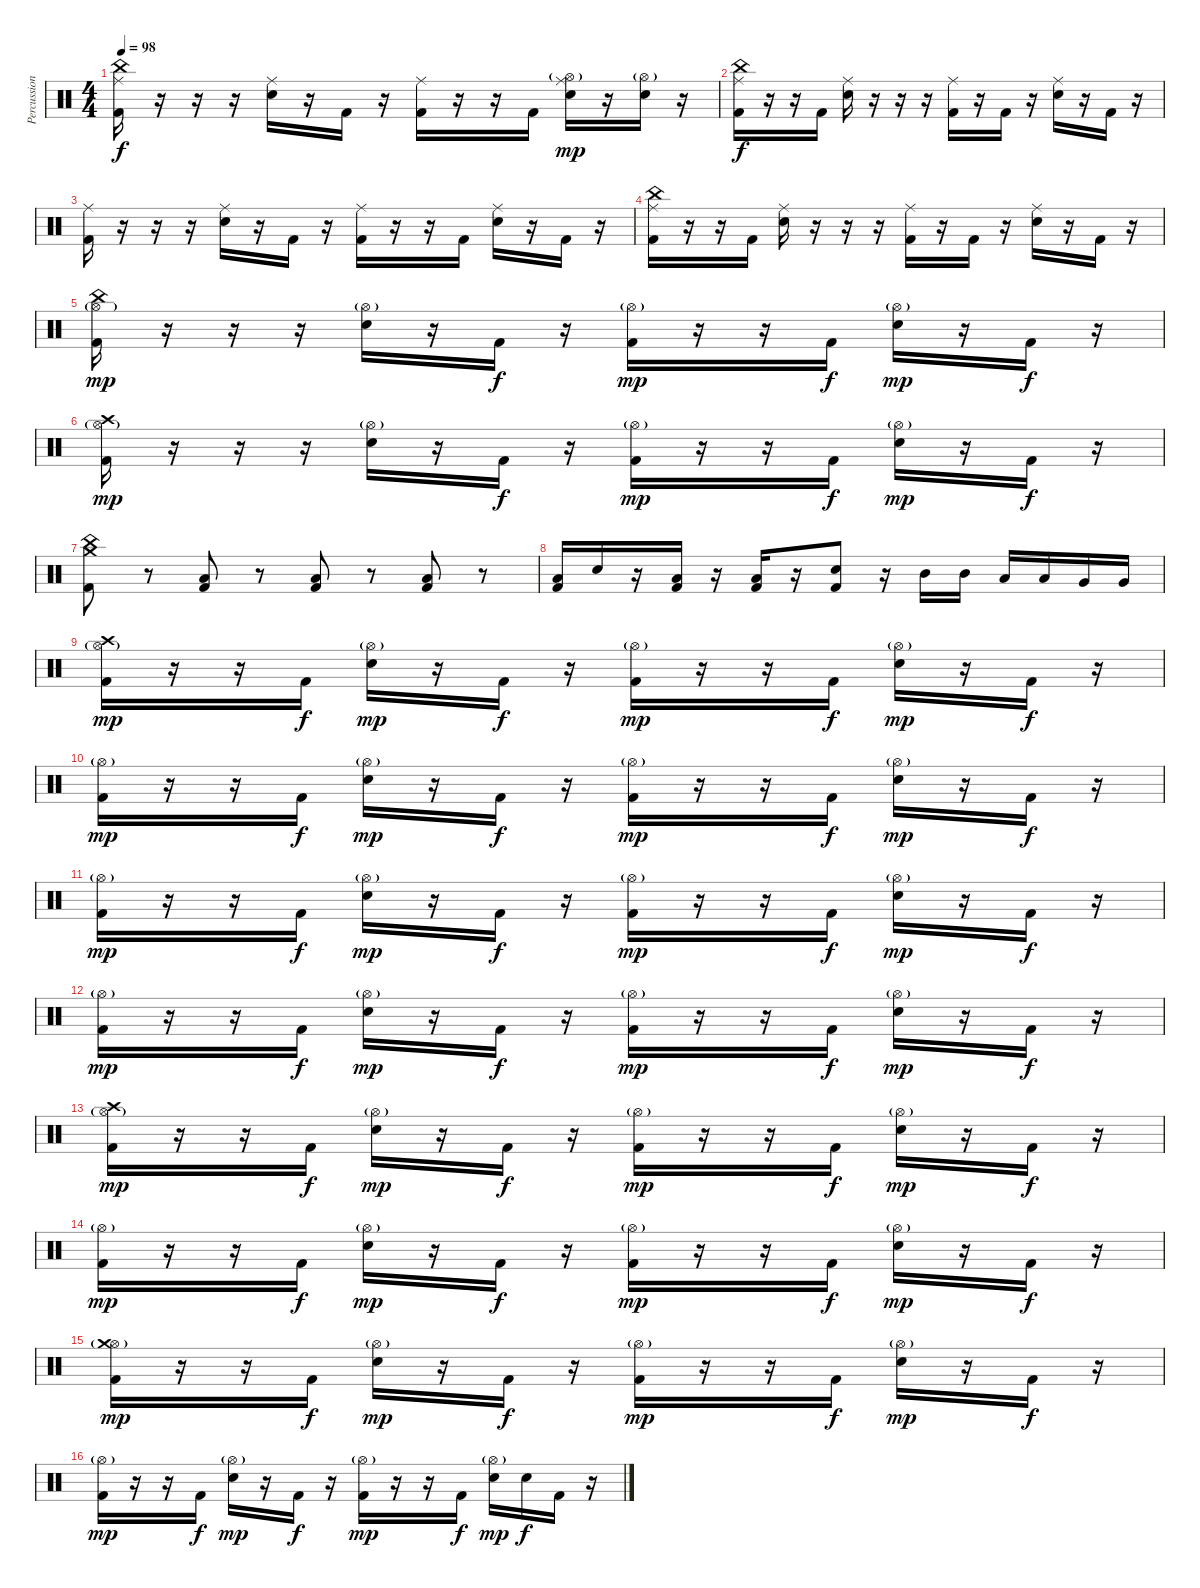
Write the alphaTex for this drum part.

\track ("Percussions" "Percussion") {instrument percussion}
\staff {score}
\articulation defaults
\ts (4 4)
\tempo 98
\clef neutral
\ks c
("Ride (middle)" "China (hit)" "Kick (hit) 2").16{dy f} r.16 r.16 r.16 ("Ride (middle)" "Snare (hit) 2").16 r.16 "Kick (hit) 2".16 r.16 ("Ride (middle)" "Kick (hit) 2").16 r.16 r.16 "Kick (hit) 2".16 ("Ride (middle)" "Hi-Hat (open)"{g} "Snare (hit) 2").16{dy mp} r.16 ("Hi-Hat (open)"{g} "Snare (hit) 2").16 r.16 |
("Ride (middle)" "China (hit)" "Kick (hit) 2").16{dy f} r.16 r.16 "Kick (hit) 2".16 ("Ride (middle)" "Snare (hit) 2").16 r.16 r.16 r.16 ("Ride (middle)" "Kick (hit) 2").16 r.16 "Kick (hit) 2".16 r.16 ("Ride (middle)" "Snare (hit) 2").16 r.16 "Kick (hit) 2".16 r.16 |
("Ride (middle)" "Kick (hit) 2").16 r.16 r.16 r.16 ("Ride (middle)" "Snare (hit) 2").16 r.16 "Kick (hit) 2".16 r.16 ("Ride (middle)" "Kick (hit) 2").16 r.16 r.16 "Kick (hit) 2".16 ("Ride (middle)" "Snare (hit) 2").16 r.16 "Kick (hit) 2".16 r.16 |
("Ride (middle)" "China (hit)" "Kick (hit) 2").16 r.16 r.16 "Kick (hit) 2".16 ("Ride (middle)" "Snare (hit) 2").16 r.16 r.16 r.16 ("Ride (middle)" "Kick (hit) 2").16 r.16 "Kick (hit) 2".16 r.16 ("Ride (middle)" "Snare (hit) 2").16 r.16 "Kick (hit) 2".16 r.16 |
("Hi-Hat (open)"{g} "China (hit)" "Kick (hit) 2").16{dy mp} r.16 r.16 r.16 ("Hi-Hat (open)"{g} "Snare (hit) 2").16 r.16 "Kick (hit) 2".16{dy f} r.16 ("Hi-Hat (open)"{g} "Kick (hit) 2").16{dy mp} r.16 r.16 "Kick (hit) 2".16{dy f} ("Hi-Hat (open)"{g} "Snare (hit) 2").16{dy mp} r.16 "Kick (hit) 2".16{dy f} r.16 |
("Hi-Hat (open)"{g} "Crash high (hit)" "Kick (hit) 2").16{dy mp} r.16 r.16 r.16 ("Hi-Hat (open)"{g} "Snare (hit) 2").16 r.16 "Kick (hit) 2".16{dy f} r.16 ("Hi-Hat (open)"{g} "Kick (hit) 2").16{dy mp} r.16 r.16 "Kick (hit) 2".16{dy f} ("Hi-Hat (open)"{g} "Snare (hit) 2").16{dy mp} r.16 "Kick (hit) 2".16{dy f} r.16 |
("China (hit)" "Crash medium (hit)" "Kick (hit) 2").8 r.8 ("Low Floor Tom (hit)" "Kick (hit) 2").8 r.8 ("Low Floor Tom (hit)" "Kick (hit) 2").8 r.8 ("Low Floor Tom (hit)" "Kick (hit) 2").8 r.8 |
("Low Floor Tom (hit)" "Kick (hit) 2").16 "Snare (hit) 2".16 r.16 ("Low Tom (hit)" "Kick (hit) 2").16 r.16 ("Kick (hit) 2" "Low Tom (hit)").16 r.16 ("Snare (hit) 2" "Kick (hit) 2").8 r.16 "Mid Tom (hit)".16 "Mid Tom (hit)".16 "Low Tom (hit)".16 "Low Tom (hit)".16 "Very Low Tom (hit)".16 "Very Low Tom (hit)".16 |
("Hi-Hat (open)"{g} "Crash high (hit)" "Kick (hit) 2").16{dy mp} r.16 r.16 "Kick (hit) 2".16{dy f} ("Hi-Hat (open)"{g} "Snare (hit) 2").16{dy mp} r.16 "Kick (hit) 2".16{dy f} r.16 ("Hi-Hat (open)"{g} "Kick (hit) 2").16{dy mp} r.16 r.16 "Kick (hit) 2".16{dy f} ("Hi-Hat (open)"{g} "Snare (hit) 2").16{dy mp} r.16 "Kick (hit) 2".16{dy f} r.16 |
("Hi-Hat (open)"{g} "Kick (hit) 2").16{dy mp} r.16 r.16 "Kick (hit) 2".16{dy f} ("Hi-Hat (open)"{g} "Snare (hit) 2").16{dy mp} r.16 "Kick (hit) 2".16{dy f} r.16 ("Hi-Hat (open)"{g} "Kick (hit) 2").16{dy mp} r.16 r.16 "Kick (hit) 2".16{dy f} ("Hi-Hat (open)"{g} "Snare (hit) 2").16{dy mp} r.16 "Kick (hit) 2".16{dy f} r.16 |
("Hi-Hat (open)"{g} "Kick (hit) 2").16{dy mp} r.16 r.16 "Kick (hit) 2".16{dy f} ("Hi-Hat (open)"{g} "Snare (hit) 2").16{dy mp} r.16 "Kick (hit) 2".16{dy f} r.16 ("Hi-Hat (open)"{g} "Kick (hit) 2").16{dy mp} r.16 r.16 "Kick (hit) 2".16{dy f} ("Hi-Hat (open)"{g} "Snare (hit) 2").16{dy mp} r.16 "Kick (hit) 2".16{dy f} r.16 |
("Hi-Hat (open)"{g} "Kick (hit) 2").16{dy mp} r.16 r.16 "Kick (hit) 2".16{dy f} ("Hi-Hat (open)"{g} "Snare (hit) 2").16{dy mp} r.16 "Kick (hit) 2".16{dy f} r.16 ("Hi-Hat (open)"{g} "Kick (hit) 2").16{dy mp} r.16 r.16 "Kick (hit) 2".16{dy f} ("Hi-Hat (open)"{g} "Snare (hit) 2").16{dy mp} r.16 "Kick (hit) 2".16{dy f} r.16 |
("Hi-Hat (open)"{g} "Crash high (hit)" "Kick (hit) 2").16{dy mp} r.16 r.16 "Kick (hit) 2".16{dy f} ("Hi-Hat (open)"{g} "Snare (hit) 2").16{dy mp} r.16 "Kick (hit) 2".16{dy f} r.16 ("Hi-Hat (open)"{g} "Kick (hit) 2").16{dy mp} r.16 r.16 "Kick (hit) 2".16{dy f} ("Hi-Hat (open)"{g} "Snare (hit) 2").16{dy mp} r.16 "Kick (hit) 2".16{dy f} r.16 |
("Hi-Hat (open)"{g} "Kick (hit) 2").16{dy mp} r.16 r.16 "Kick (hit) 2".16{dy f} ("Hi-Hat (open)"{g} "Snare (hit) 2").16{dy mp} r.16 "Kick (hit) 2".16{dy f} r.16 ("Hi-Hat (open)"{g} "Kick (hit) 2").16{dy mp} r.16 r.16 "Kick (hit) 2".16{dy f} ("Hi-Hat (open)"{g} "Snare (hit) 2").16{dy mp} r.16 "Kick (hit) 2".16{dy f} r.16 |
("Hi-Hat (open)"{g} "Crash medium (hit)" "Kick (hit) 2").16{dy mp} r.16 r.16 "Kick (hit) 2".16{dy f} ("Hi-Hat (open)"{g} "Snare (hit) 2").16{dy mp} r.16 "Kick (hit) 2".16{dy f} r.16 ("Hi-Hat (open)"{g} "Kick (hit) 2").16{dy mp} r.16 r.16 "Kick (hit) 2".16{dy f} ("Hi-Hat (open)"{g} "Snare (hit) 2").16{dy mp} r.16 "Kick (hit) 2".16{dy f} r.16 |
("Hi-Hat (open)"{g} "Kick (hit) 2").16{dy mp} r.16 r.16 "Kick (hit) 2".16{dy f} ("Hi-Hat (open)"{g} "Snare (hit) 2").16{dy mp} r.16 "Kick (hit) 2".16{dy f} r.16 ("Hi-Hat (open)"{g} "Kick (hit) 2").16{dy mp} r.16 r.16 "Kick (hit) 2".16{dy f} ("Hi-Hat (open)"{g} "Snare (hit) 2").16{dy mp} "Snare (hit) 2".16{dy f} "Kick (hit) 2".16 r.16
